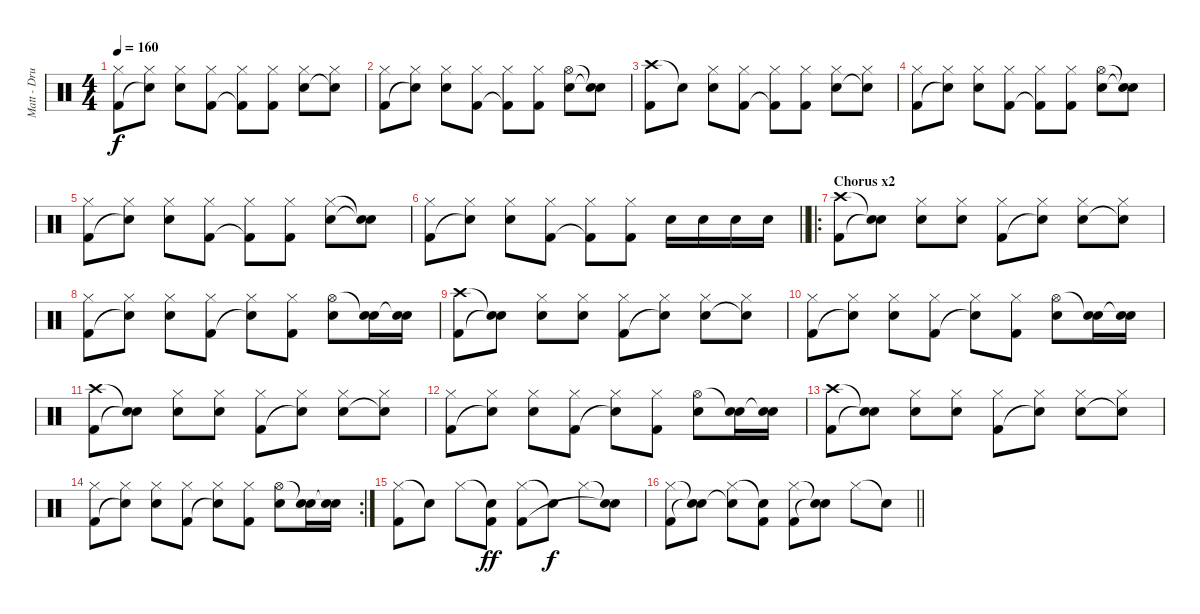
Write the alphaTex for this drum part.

\track ("Matt - Drums" "Matt - Dru") {instrument percussion}
\staff {score}
\articulation defaults
\ts (4 4)
\tempo 160
\clef neutral
\ks c
("Hi-Hat (closed)" "Kick (hit) 2").8{dy f} ("Hi-Hat (closed)" "Snare (hit)"{t}).8 ("Hi-Hat (closed)" "Snare (hit) 2").8 ("Hi-Hat (closed)" "Kick (hit) 2").8 ("Hi-Hat (closed)" "Kick (hit) 2"{t}).8 ("Hi-Hat (closed)" "Kick (hit) 2").8 ("Hi-Hat (closed)" "Snare (hit) 2").8 ("Hi-Hat (closed)" "Snare (hit)"{t}).8 |
("Hi-Hat (closed)" "Kick (hit) 2").8 ("Hi-Hat (closed)" "Snare (hit)"{t}).8 ("Hi-Hat (closed)" "Snare (hit) 2").8 ("Hi-Hat (closed)" "Kick (hit) 2").8 ("Hi-Hat (closed)" "Kick (hit) 2"{t}).8 ("Hi-Hat (closed)" "Kick (hit) 2").8 ("Hi-Hat (open)" "Snare (hit) 2").8 ("Snare (hit)"{t} "Snare (hit)"{t}).8 |
("Crash high (hit)" "Kick (hit) 2").8 "Snare (hit)"{t}.8 ("Hi-Hat (closed)" "Snare (hit) 2").8 ("Hi-Hat (closed)" "Kick (hit) 2").8 ("Hi-Hat (closed)" "Kick (hit) 2"{t}).8 ("Hi-Hat (closed)" "Kick (hit) 2").8 ("Hi-Hat (closed)" "Snare (hit) 2").8 ("Hi-Hat (closed)" "Snare (hit)"{t}).8 |
("Hi-Hat (closed)" "Kick (hit) 2").8 ("Hi-Hat (closed)" "Snare (hit)"{t}).8 ("Hi-Hat (closed)" "Snare (hit) 2").8 ("Hi-Hat (closed)" "Kick (hit) 2").8 ("Hi-Hat (closed)" "Kick (hit) 2"{t}).8 ("Hi-Hat (closed)" "Kick (hit) 2").8 ("Hi-Hat (open)" "Snare (hit) 2").8 ("Snare (hit)"{t} "Snare (hit)"{t}).8 |
("Hi-Hat (closed)" "Kick (hit) 2").8 ("Hi-Hat (closed)" "Snare (hit)"{t}).8 ("Hi-Hat (closed)" "Snare (hit) 2").8 ("Hi-Hat (closed)" "Kick (hit) 2").8 ("Hi-Hat (closed)" "Kick (hit) 2"{t}).8 ("Hi-Hat (closed)" "Kick (hit) 2").8 ("Hi-Hat (closed)" "Snare (hit) 2").8 ("Snare (hit)"{t} "Snare (hit)"{t}).8 |
\barLineRight lightlight
("Hi-Hat (closed)" "Kick (hit) 2").8 ("Hi-Hat (closed)" "Snare (hit)"{t}).8 ("Hi-Hat (closed)" "Snare (hit) 2").8 ("Hi-Hat (closed)" "Kick (hit) 2").8 ("Hi-Hat (closed)" "Kick (hit) 2"{t}).8 ("Hi-Hat (closed)" "Kick (hit) 2").8 "Snare (hit) 2".16 "Snare (hit) 2".16 "Snare (hit) 2".16 "Snare (hit) 2".16 |
\ro
\section ("" "Chorus x2")
("Crash high (hit)" "Kick (hit) 2").8 ("Snare (hit)"{t} "Snare (hit)"{t}).8 ("Hi-Hat (closed)" "Snare (hit) 2").8 ("Hi-Hat (closed)" "Snare (hit) 2").8 ("Hi-Hat (closed)" "Kick (hit) 2").8 ("Hi-Hat (closed)" "Snare (hit)"{t}).8 ("Hi-Hat (closed)" "Snare (hit) 2").8 ("Hi-Hat (closed)" "Snare (hit)"{t}).8 |
("Hi-Hat (closed)" "Kick (hit) 2").8 ("Hi-Hat (closed)" "Snare (hit)"{t}).8 ("Hi-Hat (closed)" "Snare (hit) 2").8 ("Hi-Hat (closed)" "Kick (hit) 2").8 ("Hi-Hat (closed)" "Snare (hit)"{t}).8 ("Hi-Hat (closed)" "Kick (hit) 2").8 ("Hi-Hat (open)" "Snare (hit) 2").8 ("Snare (hit)"{t} "Snare (hit) 2").16 ("Snare (hit)"{t} "Snare (hit) 2").16 |
("Crash high (hit)" "Kick (hit) 2").8 ("Snare (hit)"{t} "Snare (hit)"{t}).8 ("Hi-Hat (closed)" "Snare (hit) 2").8 ("Hi-Hat (closed)" "Snare (hit) 2").8 ("Hi-Hat (closed)" "Kick (hit) 2").8 ("Hi-Hat (closed)" "Snare (hit)"{t}).8 ("Hi-Hat (closed)" "Snare (hit) 2").8 ("Hi-Hat (closed)" "Snare (hit)"{t}).8 |
("Hi-Hat (closed)" "Kick (hit) 2").8 ("Hi-Hat (closed)" "Snare (hit)"{t}).8 ("Hi-Hat (closed)" "Snare (hit) 2").8 ("Hi-Hat (closed)" "Kick (hit) 2").8 ("Hi-Hat (closed)" "Snare (hit)"{t}).8 ("Hi-Hat (closed)" "Kick (hit) 2").8 ("Hi-Hat (open)" "Snare (hit) 2").8 ("Snare (hit)"{t} "Snare (hit) 2").16 ("Snare (hit)"{t} "Snare (hit) 2").16 |
("Crash high (hit)" "Kick (hit) 2").8 ("Snare (hit)"{t} "Snare (hit)"{t}).8 ("Hi-Hat (closed)" "Snare (hit) 2").8 ("Hi-Hat (closed)" "Snare (hit) 2").8 ("Hi-Hat (closed)" "Kick (hit) 2").8 ("Hi-Hat (closed)" "Snare (hit)"{t}).8 ("Hi-Hat (closed)" "Snare (hit) 2").8 ("Hi-Hat (closed)" "Snare (hit)"{t}).8 |
("Hi-Hat (closed)" "Kick (hit) 2").8 ("Hi-Hat (closed)" "Snare (hit)"{t}).8 ("Hi-Hat (closed)" "Snare (hit) 2").8 ("Hi-Hat (closed)" "Kick (hit) 2").8 ("Hi-Hat (closed)" "Snare (hit)"{t}).8 ("Hi-Hat (closed)" "Kick (hit) 2").8 ("Hi-Hat (open)" "Snare (hit) 2").8 ("Snare (hit)"{t} "Snare (hit) 2").16 ("Snare (hit)"{t} "Snare (hit) 2").16 |
("Crash high (hit)" "Kick (hit) 2").8 ("Snare (hit)"{t} "Snare (hit)"{t}).8 ("Hi-Hat (closed)" "Snare (hit) 2").8 ("Hi-Hat (closed)" "Snare (hit) 2").8 ("Hi-Hat (closed)" "Kick (hit) 2").8 ("Hi-Hat (closed)" "Snare (hit)"{t}).8 ("Hi-Hat (closed)" "Snare (hit) 2").8 ("Hi-Hat (closed)" "Snare (hit)"{t}).8 |
\rc 2
("Hi-Hat (closed)" "Kick (hit) 2").8 ("Hi-Hat (closed)" "Snare (hit)"{t}).8 ("Hi-Hat (closed)" "Snare (hit) 2").8 ("Hi-Hat (closed)" "Kick (hit) 2").8 ("Hi-Hat (closed)" "Snare (hit)"{t}).8 ("Hi-Hat (closed)" "Kick (hit) 2").8 ("Hi-Hat (open)" "Snare (hit) 2").8 ("Snare (hit)"{t} "Snare (hit) 2").16 ("Snare (hit)"{t} "Snare (hit) 2").16 |
("Hi-Hat (closed)" "Kick (hit) 2").8 "Snare (hit)"{t}.8 "Hi-Hat (closed)".8 ("Snare (hit)"{t} "Kick (hit) 2").8{dy ff} ("Hi-Hat (closed)" "Kick (hit) 2").8 "Snare (hit)"{t}.8{dy f} "Hi-Hat (closed)".8 ("Snare (hit)"{t} "Snare (hit)"{t}).8 |
\barLineRight lightlight
("Hi-Hat (closed)" "Kick (hit) 2").8 ("Snare (hit)"{t} "Snare (hit)"{t}).8 ("Hi-Hat (closed)" "Snare (hit)"{t}).8 ("Snare (hit)"{t} "Kick (hit) 2").8 ("Hi-Hat (closed)" "Kick (hit) 2").8 ("Snare (hit)"{t} "Snare (hit)"{t}).8 "Hi-Hat (closed)".8 "Snare (hit)"{t}.8
